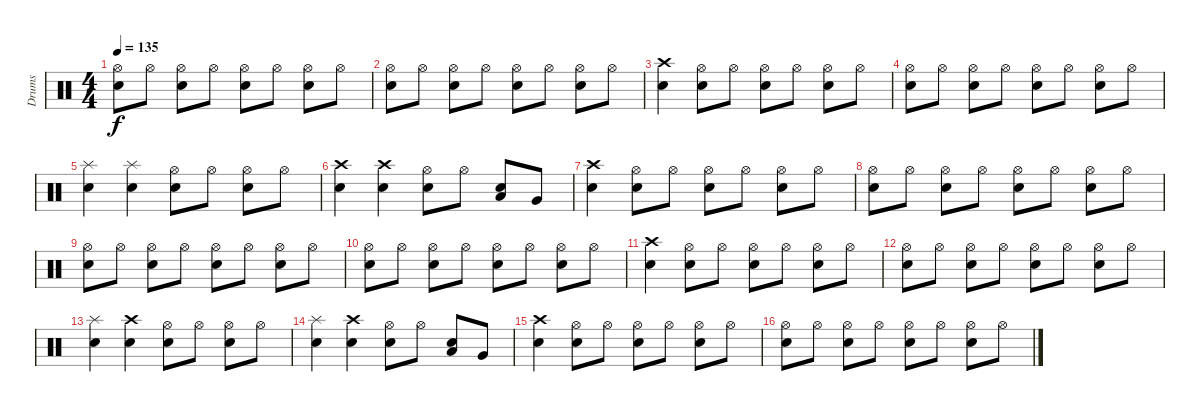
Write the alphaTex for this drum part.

\track ("Drums" "Drums") {instrument percussion}
\staff {score}
\articulation defaults
\ts (4 4)
\tempo 135
\clef neutral
\ks c
("Hi-Hat (open)" "Snare (hit) 2").8{dy f} "Hi-Hat (open)".8 ("Hi-Hat (open)" "Snare (hit) 2").8 "Hi-Hat (open)".8 ("Hi-Hat (open)" "Snare (hit) 2").8 "Hi-Hat (open)".8 ("Hi-Hat (open)" "Snare (hit) 2").8 "Hi-Hat (open)".8 |
("Hi-Hat (open)" "Snare (hit) 2").8 "Hi-Hat (open)".8 ("Hi-Hat (open)" "Snare (hit) 2").8 "Hi-Hat (open)".8 ("Hi-Hat (open)" "Snare (hit) 2").8 "Hi-Hat (open)".8 ("Hi-Hat (open)" "Snare (hit) 2").8 "Hi-Hat (open)".8 |
("Crash high (hit)" "Snare (hit) 2").4 ("Hi-Hat (open)" "Snare (hit) 2").8 "Hi-Hat (open)".8 ("Hi-Hat (open)" "Snare (hit) 2").8 "Hi-Hat (open)".8 ("Hi-Hat (open)" "Snare (hit) 2").8 "Hi-Hat (open)".8 |
("Hi-Hat (open)" "Snare (hit) 2").8 "Hi-Hat (open)".8 ("Hi-Hat (open)" "Snare (hit) 2").8 "Hi-Hat (open)".8 ("Hi-Hat (open)" "Snare (hit) 2").8 "Hi-Hat (open)".8 ("Hi-Hat (open)" "Snare (hit) 2").8 "Hi-Hat (open)".8 |
("Splash (hit)" "Snare (hit) 2").4 ("Splash (hit)" "Snare (hit) 2").4 ("Hi-Hat (open)" "Snare (hit) 2").8 "Hi-Hat (open)".8 ("Hi-Hat (open)" "Snare (hit) 2").8 "Hi-Hat (open)".8 |
("Crash high (hit)" "Snare (hit) 2").4 ("Crash high (hit)" "Snare (hit) 2").4 ("Hi-Hat (open)" "Snare (hit) 2").8 "Hi-Hat (open)".8 ("Snare (hit) 2" "Low Tom (hit)").8 "Very Low Tom (hit)".8 |
("Crash high (hit)" "Snare (hit) 2").4 ("Hi-Hat (open)" "Snare (hit) 2").8 "Hi-Hat (open)".8 ("Hi-Hat (open)" "Snare (hit) 2").8 "Hi-Hat (open)".8 ("Hi-Hat (open)" "Snare (hit) 2").8 "Hi-Hat (open)".8 |
("Hi-Hat (open)" "Snare (hit) 2").8 "Hi-Hat (open)".8 ("Hi-Hat (open)" "Snare (hit) 2").8 "Hi-Hat (open)".8 ("Hi-Hat (open)" "Snare (hit) 2").8 "Hi-Hat (open)".8 ("Hi-Hat (open)" "Snare (hit) 2").8 "Hi-Hat (open)".8 |
("Hi-Hat (open)" "Snare (hit) 2").8 "Hi-Hat (open)".8 ("Hi-Hat (open)" "Snare (hit) 2").8 "Hi-Hat (open)".8 ("Hi-Hat (open)" "Snare (hit) 2").8 "Hi-Hat (open)".8 ("Hi-Hat (open)" "Snare (hit) 2").8 "Hi-Hat (open)".8 |
("Hi-Hat (open)" "Snare (hit) 2").8 "Hi-Hat (open)".8 ("Hi-Hat (open)" "Snare (hit) 2").8 "Hi-Hat (open)".8 ("Hi-Hat (open)" "Snare (hit) 2").8 "Hi-Hat (open)".8 ("Hi-Hat (open)" "Snare (hit) 2").8 "Hi-Hat (open)".8 |
("Crash high (hit)" "Snare (hit) 2").4 ("Hi-Hat (open)" "Snare (hit) 2").8 "Hi-Hat (open)".8 ("Hi-Hat (open)" "Snare (hit) 2").8 "Hi-Hat (open)".8 ("Hi-Hat (open)" "Snare (hit) 2").8 "Hi-Hat (open)".8 |
("Hi-Hat (open)" "Snare (hit) 2").8 "Hi-Hat (open)".8 ("Hi-Hat (open)" "Snare (hit) 2").8 "Hi-Hat (open)".8 ("Hi-Hat (open)" "Snare (hit) 2").8 "Hi-Hat (open)".8 ("Hi-Hat (open)" "Snare (hit) 2").8 "Hi-Hat (open)".8 |
("Splash (hit)" "Snare (hit) 2").4 ("Crash high (hit)" "Snare (hit) 2").4 ("Hi-Hat (open)" "Snare (hit) 2").8 "Hi-Hat (open)".8 ("Hi-Hat (open)" "Snare (hit) 2").8 "Hi-Hat (open)".8 |
("Splash (hit)" "Snare (hit) 2").4 ("Crash high (hit)" "Snare (hit) 2").4 ("Hi-Hat (open)" "Snare (hit) 2").8 "Hi-Hat (open)".8 ("Snare (hit) 2" "Low Tom (hit)").8 "Very Low Tom (hit)".8 |
("Crash high (hit)" "Snare (hit) 2").4 ("Hi-Hat (open)" "Snare (hit) 2").8 "Hi-Hat (open)".8 ("Hi-Hat (open)" "Snare (hit) 2").8 "Hi-Hat (open)".8 ("Hi-Hat (open)" "Snare (hit) 2").8 "Hi-Hat (open)".8 |
("Hi-Hat (open)" "Snare (hit) 2").8 "Hi-Hat (open)".8 ("Hi-Hat (open)" "Snare (hit) 2").8 "Hi-Hat (open)".8 ("Hi-Hat (open)" "Snare (hit) 2").8 "Hi-Hat (open)".8 ("Hi-Hat (open)" "Snare (hit) 2").8 "Hi-Hat (open)".8
